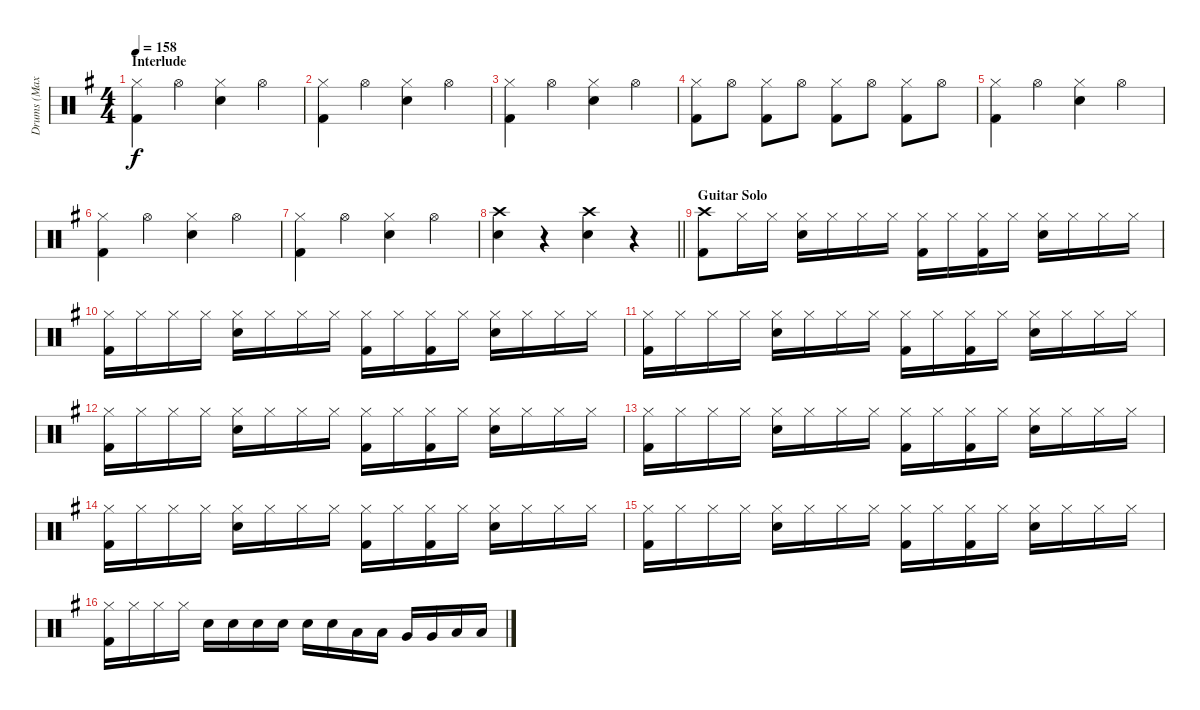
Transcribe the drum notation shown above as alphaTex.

\track ("Drums (Max)" "Drums (Max") {instrument percussion}
\staff {score}
\articulation defaults
\ts (4 4)
\section ("" "Interlude")
\tempo 158
\clef neutral
\ks g
("Hi-Hat (closed)" "Kick (hit) 2").4{dy f} "Hi-Hat (open)".4 ("Hi-Hat (closed)" "Snare (hit) 2").4 "Hi-Hat (open)".4 |
("Hi-Hat (closed)" "Kick (hit) 2").4 "Hi-Hat (open)".4 ("Hi-Hat (closed)" "Snare (hit) 2").4 "Hi-Hat (open)".4 |
("Hi-Hat (closed)" "Kick (hit) 2").4 "Hi-Hat (open)".4 ("Hi-Hat (closed)" "Snare (hit) 2").4 "Hi-Hat (open)".4 |
("Hi-Hat (closed)" "Kick (hit) 2").8 "Hi-Hat (open)".8 ("Hi-Hat (closed)" "Kick (hit) 2").8 "Hi-Hat (open)".8 ("Hi-Hat (closed)" "Kick (hit) 2").8 "Hi-Hat (open)".8 ("Hi-Hat (closed)" "Kick (hit) 2").8 "Hi-Hat (open)".8 |
("Hi-Hat (closed)" "Kick (hit) 2").4 "Hi-Hat (open)".4 ("Hi-Hat (closed)" "Snare (hit) 2").4 "Hi-Hat (open)".4 |
("Hi-Hat (closed)" "Kick (hit) 2").4 "Hi-Hat (open)".4 ("Hi-Hat (closed)" "Snare (hit) 2").4 "Hi-Hat (open)".4 |
("Hi-Hat (closed)" "Kick (hit) 2").4 "Hi-Hat (open)".4 ("Hi-Hat (closed)" "Snare (hit) 2").4 "Hi-Hat (open)".4 |
\barLineRight lightlight
("Crash high (hit)" "Snare (hit) 2").4 r.4 ("Crash high (hit)" "Snare (hit) 2").4 r.4 |
\section ("" "Guitar Solo")
("Crash high (hit)" "Kick (hit) 2").8 "Hi-Hat (closed)".16 "Hi-Hat (closed)".16 ("Hi-Hat (closed)" "Snare (hit) 2").16 "Hi-Hat (closed)".16 "Hi-Hat (closed)".16 "Hi-Hat (closed)".16 ("Hi-Hat (closed)" "Kick (hit) 2").16 "Hi-Hat (closed)".16 ("Hi-Hat (closed)" "Kick (hit) 2").16 "Hi-Hat (closed)".16 ("Hi-Hat (closed)" "Snare (hit) 2").16 "Hi-Hat (closed)".16 "Hi-Hat (closed)".16 "Hi-Hat (closed)".16 |
("Hi-Hat (closed)" "Kick (hit) 2").16 "Hi-Hat (closed)".16 "Hi-Hat (closed)".16 "Hi-Hat (closed)".16 ("Hi-Hat (closed)" "Snare (hit) 2").16 "Hi-Hat (closed)".16 "Hi-Hat (closed)".16 "Hi-Hat (closed)".16 ("Hi-Hat (closed)" "Kick (hit) 2").16 "Hi-Hat (closed)".16 ("Hi-Hat (closed)" "Kick (hit) 2").16 "Hi-Hat (closed)".16 ("Hi-Hat (closed)" "Snare (hit) 2").16 "Hi-Hat (closed)".16 "Hi-Hat (closed)".16 "Hi-Hat (closed)".16 |
("Hi-Hat (closed)" "Kick (hit) 2").16 "Hi-Hat (closed)".16 "Hi-Hat (closed)".16 "Hi-Hat (closed)".16 ("Hi-Hat (closed)" "Snare (hit) 2").16 "Hi-Hat (closed)".16 "Hi-Hat (closed)".16 "Hi-Hat (closed)".16 ("Hi-Hat (closed)" "Kick (hit) 2").16 "Hi-Hat (closed)".16 ("Hi-Hat (closed)" "Kick (hit) 2").16 "Hi-Hat (closed)".16 ("Hi-Hat (closed)" "Snare (hit) 2").16 "Hi-Hat (closed)".16 "Hi-Hat (closed)".16 "Hi-Hat (closed)".16 |
("Hi-Hat (closed)" "Kick (hit) 2").16 "Hi-Hat (closed)".16 "Hi-Hat (closed)".16 "Hi-Hat (closed)".16 ("Hi-Hat (closed)" "Snare (hit) 2").16 "Hi-Hat (closed)".16 "Hi-Hat (closed)".16 "Hi-Hat (closed)".16 ("Hi-Hat (closed)" "Kick (hit) 2").16 "Hi-Hat (closed)".16 ("Hi-Hat (closed)" "Kick (hit) 2").16 "Hi-Hat (closed)".16 ("Hi-Hat (closed)" "Snare (hit) 2").16 "Hi-Hat (closed)".16 "Hi-Hat (closed)".16 "Hi-Hat (closed)".16 |
("Hi-Hat (closed)" "Kick (hit) 2").16 "Hi-Hat (closed)".16 "Hi-Hat (closed)".16 "Hi-Hat (closed)".16 ("Hi-Hat (closed)" "Snare (hit) 2").16 "Hi-Hat (closed)".16 "Hi-Hat (closed)".16 "Hi-Hat (closed)".16 ("Hi-Hat (closed)" "Kick (hit) 2").16 "Hi-Hat (closed)".16 ("Hi-Hat (closed)" "Kick (hit) 2").16 "Hi-Hat (closed)".16 ("Hi-Hat (closed)" "Snare (hit) 2").16 "Hi-Hat (closed)".16 "Hi-Hat (closed)".16 "Hi-Hat (closed)".16 |
("Hi-Hat (closed)" "Kick (hit) 2").16 "Hi-Hat (closed)".16 "Hi-Hat (closed)".16 "Hi-Hat (closed)".16 ("Hi-Hat (closed)" "Snare (hit) 2").16 "Hi-Hat (closed)".16 "Hi-Hat (closed)".16 "Hi-Hat (closed)".16 ("Hi-Hat (closed)" "Kick (hit) 2").16 "Hi-Hat (closed)".16 ("Hi-Hat (closed)" "Kick (hit) 2").16 "Hi-Hat (closed)".16 ("Hi-Hat (closed)" "Snare (hit) 2").16 "Hi-Hat (closed)".16 "Hi-Hat (closed)".16 "Hi-Hat (closed)".16 |
("Hi-Hat (closed)" "Kick (hit) 2").16 "Hi-Hat (closed)".16 "Hi-Hat (closed)".16 "Hi-Hat (closed)".16 ("Hi-Hat (closed)" "Snare (hit) 2").16 "Hi-Hat (closed)".16 "Hi-Hat (closed)".16 "Hi-Hat (closed)".16 ("Hi-Hat (closed)" "Kick (hit) 2").16 "Hi-Hat (closed)".16 ("Hi-Hat (closed)" "Kick (hit) 2").16 "Hi-Hat (closed)".16 ("Hi-Hat (closed)" "Snare (hit) 2").16 "Hi-Hat (closed)".16 "Hi-Hat (closed)".16 "Hi-Hat (closed)".16 |
("Hi-Hat (closed)" "Kick (hit) 2").16 "Hi-Hat (closed)".16 "Hi-Hat (closed)".16 "Hi-Hat (closed)".16 "Snare (hit) 2".16 "Snare (hit) 2".16 "Snare (hit) 2".16 "Snare (hit) 2".16 "Snare (hit) 2".16 "Snare (hit) 2".16 "Low Tom (hit)".16 "Low Tom (hit)".16 "Very Low Tom (hit)".16 "Very Low Tom (hit)".16 "Low Floor Tom (hit)".16 "Low Floor Tom (hit)".16
